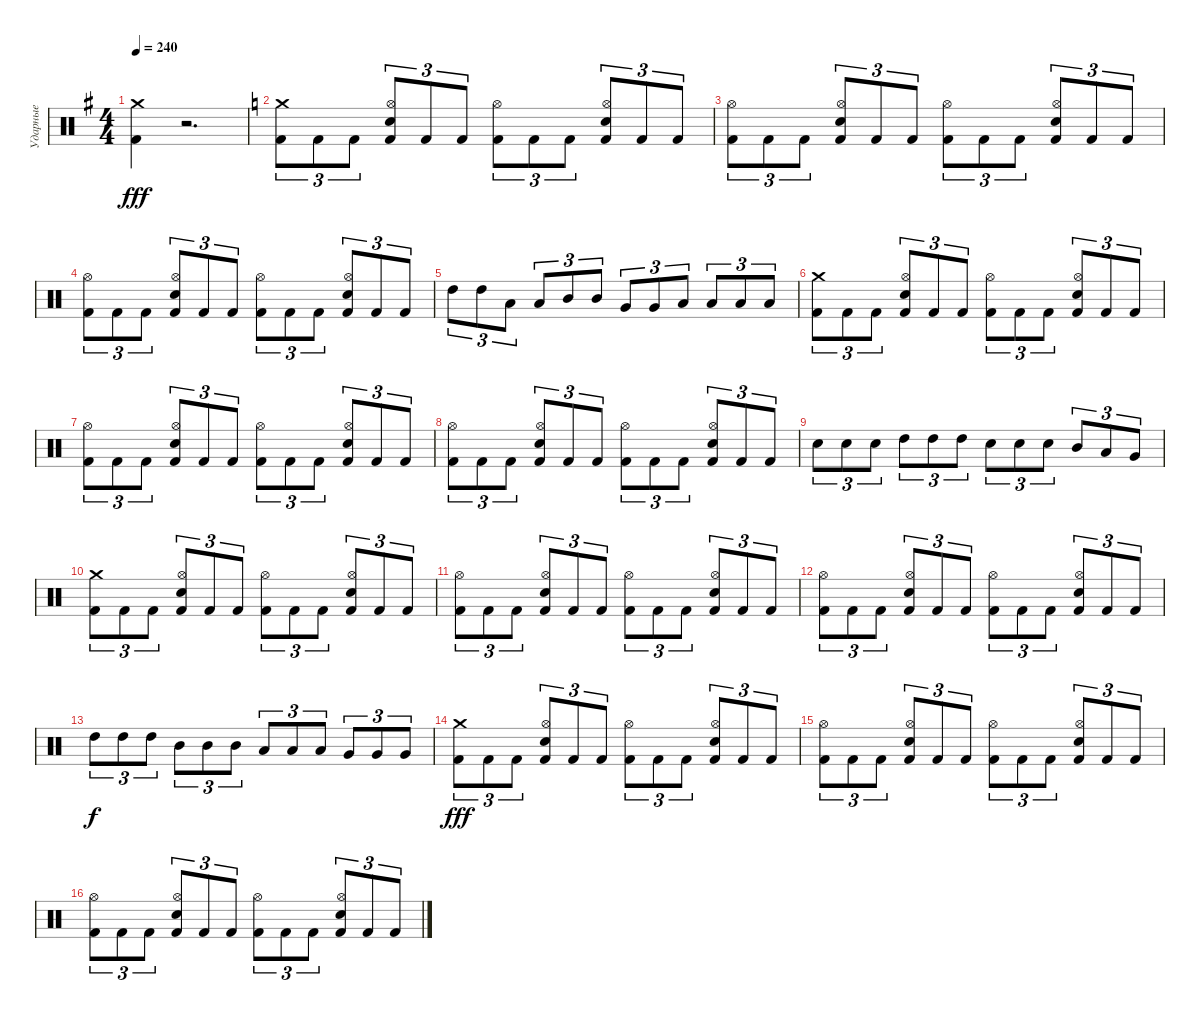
\track ("Ударные" "Ударные") {instrument percussion}
\staff {score}
\articulation defaults
\ts (4 4)
\tempo 240
\clef neutral
\ks eminor
("Crash medium (hit)" "Kick (hit) 2").4{dy fff} r.2{d} |
\ks c
("Crash medium (hit)" "Kick (hit) 2").8{tu (3 2)} "Kick (hit) 2".8{tu (3 2)} "Kick (hit) 2".8{tu (3 2)} ("Hi-Hat (open)" "Electric Snare (hit)" "Kick (hit) 2").8{tu (3 2)} "Kick (hit) 2".8{tu (3 2)} "Kick (hit) 2".8{tu (3 2)} ("Hi-Hat (open)" "Kick (hit) 2").8{tu (3 2)} "Kick (hit) 2".8{tu (3 2)} "Kick (hit) 2".8{tu (3 2)} ("Hi-Hat (open)" "Electric Snare (hit)" "Kick (hit) 2").8{tu (3 2)} "Kick (hit) 2".8{tu (3 2)} "Kick (hit) 2".8{tu (3 2)} |
("Hi-Hat (open)" "Kick (hit) 2").8{tu (3 2)} "Kick (hit) 2".8{tu (3 2)} "Kick (hit) 2".8{tu (3 2)} ("Hi-Hat (open)" "Electric Snare (hit)" "Kick (hit) 2").8{tu (3 2)} "Kick (hit) 2".8{tu (3 2)} "Kick (hit) 2".8{tu (3 2)} ("Hi-Hat (open)" "Kick (hit) 2").8{tu (3 2)} "Kick (hit) 2".8{tu (3 2)} "Kick (hit) 2".8{tu (3 2)} ("Hi-Hat (open)" "Electric Snare (hit)" "Kick (hit) 2").8{tu (3 2)} "Kick (hit) 2".8{tu (3 2)} "Kick (hit) 2".8{tu (3 2)} |
\ks aminor
("Hi-Hat (open)" "Kick (hit) 2").8{tu (3 2)} "Kick (hit) 2".8{tu (3 2)} "Kick (hit) 2".8{tu (3 2)} ("Hi-Hat (open)" "Electric Snare (hit)" "Kick (hit) 2").8{tu (3 2)} "Kick (hit) 2".8{tu (3 2)} "Kick (hit) 2".8{tu (3 2)} ("Hi-Hat (open)" "Kick (hit) 2").8{tu (3 2)} "Kick (hit) 2".8{tu (3 2)} "Kick (hit) 2".8{tu (3 2)} ("Hi-Hat (open)" "Electric Snare (hit)" "Kick (hit) 2").8{tu (3 2)} "Kick (hit) 2".8{tu (3 2)} "Kick (hit) 2".8{tu (3 2)} |
"High Tom (hit)".8{tu (3 2)} "High Tom (hit)".8{tu (3 2)} "Low Tom (hit)".8{tu (3 2)} "Low Tom (hit)".8{tu (3 2)} "Mid Tom (hit)".8{tu (3 2)} "Mid Tom (hit)".8{tu (3 2)} "Very Low Tom (hit)".8{tu (3 2)} "Very Low Tom (hit)".8{tu (3 2)} "Low Tom (hit)".8{tu (3 2)} "Low Tom (hit)".8{tu (3 2)} "Low Floor Tom (hit)".8{tu (3 2)} "Low Floor Tom (hit)".8{tu (3 2)} |
\ks c
("Crash medium (hit)" "Kick (hit) 2").8{tu (3 2)} "Kick (hit) 2".8{tu (3 2)} "Kick (hit) 2".8{tu (3 2)} ("Hi-Hat (open)" "Electric Snare (hit)" "Kick (hit) 2").8{tu (3 2)} "Kick (hit) 2".8{tu (3 2)} "Kick (hit) 2".8{tu (3 2)} ("Hi-Hat (open)" "Kick (hit) 2").8{tu (3 2)} "Kick (hit) 2".8{tu (3 2)} "Kick (hit) 2".8{tu (3 2)} ("Hi-Hat (open)" "Electric Snare (hit)" "Kick (hit) 2").8{tu (3 2)} "Kick (hit) 2".8{tu (3 2)} "Kick (hit) 2".8{tu (3 2)} |
("Hi-Hat (open)" "Kick (hit) 2").8{tu (3 2)} "Kick (hit) 2".8{tu (3 2)} "Kick (hit) 2".8{tu (3 2)} ("Hi-Hat (open)" "Electric Snare (hit)" "Kick (hit) 2").8{tu (3 2)} "Kick (hit) 2".8{tu (3 2)} "Kick (hit) 2".8{tu (3 2)} ("Hi-Hat (open)" "Kick (hit) 2").8{tu (3 2)} "Kick (hit) 2".8{tu (3 2)} "Kick (hit) 2".8{tu (3 2)} ("Hi-Hat (open)" "Electric Snare (hit)" "Kick (hit) 2").8{tu (3 2)} "Kick (hit) 2".8{tu (3 2)} "Kick (hit) 2".8{tu (3 2)} |
\ks aminor
("Hi-Hat (open)" "Kick (hit) 2").8{tu (3 2)} "Kick (hit) 2".8{tu (3 2)} "Kick (hit) 2".8{tu (3 2)} ("Hi-Hat (open)" "Electric Snare (hit)" "Kick (hit) 2").8{tu (3 2)} "Kick (hit) 2".8{tu (3 2)} "Kick (hit) 2".8{tu (3 2)} ("Hi-Hat (open)" "Kick (hit) 2").8{tu (3 2)} "Kick (hit) 2".8{tu (3 2)} "Kick (hit) 2".8{tu (3 2)} ("Hi-Hat (open)" "Electric Snare (hit)" "Kick (hit) 2").8{tu (3 2)} "Kick (hit) 2".8{tu (3 2)} "Kick (hit) 2".8{tu (3 2)} |
"Electric Snare (hit)".8{tu (3 2)} "Electric Snare (hit)".8{tu (3 2)} "Electric Snare (hit)".8{tu (3 2)} "High Tom (hit)".8{tu (3 2)} "High Tom (hit)".8{tu (3 2)} "High Tom (hit)".8{tu (3 2)} "Electric Snare (hit)".8{tu (3 2)} "Electric Snare (hit)".8{tu (3 2)} "Electric Snare (hit)".8{tu (3 2)} "Mid Tom (hit)".8{tu (3 2)} "Low Tom (hit)".8{tu (3 2)} "Very Low Tom (hit)".8{tu (3 2)} |
\ks c
("Crash medium (hit)" "Kick (hit) 2").8{tu (3 2)} "Kick (hit) 2".8{tu (3 2)} "Kick (hit) 2".8{tu (3 2)} ("Hi-Hat (open)" "Electric Snare (hit)" "Kick (hit) 2").8{tu (3 2)} "Kick (hit) 2".8{tu (3 2)} "Kick (hit) 2".8{tu (3 2)} ("Hi-Hat (open)" "Kick (hit) 2").8{tu (3 2)} "Kick (hit) 2".8{tu (3 2)} "Kick (hit) 2".8{tu (3 2)} ("Hi-Hat (open)" "Electric Snare (hit)" "Kick (hit) 2").8{tu (3 2)} "Kick (hit) 2".8{tu (3 2)} "Kick (hit) 2".8{tu (3 2)} |
("Hi-Hat (open)" "Kick (hit) 2").8{tu (3 2)} "Kick (hit) 2".8{tu (3 2)} "Kick (hit) 2".8{tu (3 2)} ("Hi-Hat (open)" "Electric Snare (hit)" "Kick (hit) 2").8{tu (3 2)} "Kick (hit) 2".8{tu (3 2)} "Kick (hit) 2".8{tu (3 2)} ("Hi-Hat (open)" "Kick (hit) 2").8{tu (3 2)} "Kick (hit) 2".8{tu (3 2)} "Kick (hit) 2".8{tu (3 2)} ("Hi-Hat (open)" "Electric Snare (hit)" "Kick (hit) 2").8{tu (3 2)} "Kick (hit) 2".8{tu (3 2)} "Kick (hit) 2".8{tu (3 2)} |
\ks aminor
("Hi-Hat (open)" "Kick (hit) 2").8{tu (3 2)} "Kick (hit) 2".8{tu (3 2)} "Kick (hit) 2".8{tu (3 2)} ("Hi-Hat (open)" "Electric Snare (hit)" "Kick (hit) 2").8{tu (3 2)} "Kick (hit) 2".8{tu (3 2)} "Kick (hit) 2".8{tu (3 2)} ("Hi-Hat (open)" "Kick (hit) 2").8{tu (3 2)} "Kick (hit) 2".8{tu (3 2)} "Kick (hit) 2".8{tu (3 2)} ("Hi-Hat (open)" "Electric Snare (hit)" "Kick (hit) 2").8{tu (3 2)} "Kick (hit) 2".8{tu (3 2)} "Kick (hit) 2".8{tu (3 2)} |
"High Tom (hit)".8{tu (3 2) dy f} "High Tom (hit)".8{tu (3 2)} "High Tom (hit)".8{tu (3 2)} "Mid Tom (hit)".8{tu (3 2)} "Mid Tom (hit)".8{tu (3 2)} "Mid Tom (hit)".8{tu (3 2)} "Low Tom (hit)".8{tu (3 2)} "Low Tom (hit)".8{tu (3 2)} "Low Tom (hit)".8{tu (3 2)} "Very Low Tom (hit)".8{tu (3 2)} "Very Low Tom (hit)".8{tu (3 2)} "Very Low Tom (hit)".8{tu (3 2)} |
\ks c
("Crash medium (hit)" "Kick (hit) 2").8{tu (3 2) dy fff} "Kick (hit) 2".8{tu (3 2)} "Kick (hit) 2".8{tu (3 2)} ("Hi-Hat (open)" "Electric Snare (hit)" "Kick (hit) 2").8{tu (3 2)} "Kick (hit) 2".8{tu (3 2)} "Kick (hit) 2".8{tu (3 2)} ("Hi-Hat (open)" "Kick (hit) 2").8{tu (3 2)} "Kick (hit) 2".8{tu (3 2)} "Kick (hit) 2".8{tu (3 2)} ("Hi-Hat (open)" "Electric Snare (hit)" "Kick (hit) 2").8{tu (3 2)} "Kick (hit) 2".8{tu (3 2)} "Kick (hit) 2".8{tu (3 2)} |
("Hi-Hat (open)" "Kick (hit) 2").8{tu (3 2)} "Kick (hit) 2".8{tu (3 2)} "Kick (hit) 2".8{tu (3 2)} ("Hi-Hat (open)" "Electric Snare (hit)" "Kick (hit) 2").8{tu (3 2)} "Kick (hit) 2".8{tu (3 2)} "Kick (hit) 2".8{tu (3 2)} ("Hi-Hat (open)" "Kick (hit) 2").8{tu (3 2)} "Kick (hit) 2".8{tu (3 2)} "Kick (hit) 2".8{tu (3 2)} ("Hi-Hat (open)" "Electric Snare (hit)" "Kick (hit) 2").8{tu (3 2)} "Kick (hit) 2".8{tu (3 2)} "Kick (hit) 2".8{tu (3 2)} |
\ks aminor
("Hi-Hat (open)" "Kick (hit) 2").8{tu (3 2)} "Kick (hit) 2".8{tu (3 2)} "Kick (hit) 2".8{tu (3 2)} ("Hi-Hat (open)" "Electric Snare (hit)" "Kick (hit) 2").8{tu (3 2)} "Kick (hit) 2".8{tu (3 2)} "Kick (hit) 2".8{tu (3 2)} ("Hi-Hat (open)" "Kick (hit) 2").8{tu (3 2)} "Kick (hit) 2".8{tu (3 2)} "Kick (hit) 2".8{tu (3 2)} ("Hi-Hat (open)" "Electric Snare (hit)" "Kick (hit) 2").8{tu (3 2)} "Kick (hit) 2".8{tu (3 2)} "Kick (hit) 2".8{tu (3 2)}
